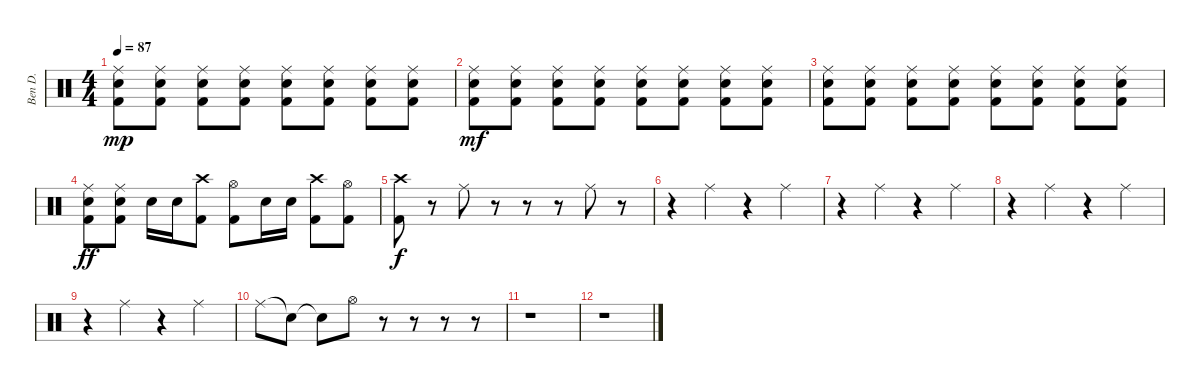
\track ("Ben D." "Ben D.") {instrument percussion}
\staff {score}
\articulation defaults
\ts (4 4)
\tempo 87
\clef neutral
\ks c
("Ride (middle)" "Electric Snare (hit)" "Kick (hit) 2").8{dy mp} ("Ride (middle)" "Electric Snare (hit)" "Kick (hit) 2").8 ("Ride (middle)" "Electric Snare (hit)" "Kick (hit) 2").8 ("Ride (middle)" "Electric Snare (hit)" "Kick (hit) 2").8 ("Ride (middle)" "Electric Snare (hit)" "Kick (hit) 2").8 ("Ride (middle)" "Electric Snare (hit)" "Kick (hit) 2").8 ("Ride (middle)" "Electric Snare (hit)" "Kick (hit) 2").8 ("Ride (middle)" "Electric Snare (hit)" "Kick (hit) 2").8 |
("Ride (middle)" "Electric Snare (hit)" "Kick (hit) 2").8{dy mf} ("Ride (middle)" "Electric Snare (hit)" "Kick (hit) 2").8 ("Ride (middle)" "Electric Snare (hit)" "Kick (hit) 2").8 ("Ride (middle)" "Electric Snare (hit)" "Kick (hit) 2").8 ("Ride (middle)" "Electric Snare (hit)" "Kick (hit) 2").8 ("Ride (middle)" "Electric Snare (hit)" "Kick (hit) 2").8 ("Ride (middle)" "Electric Snare (hit)" "Kick (hit) 2").8 ("Ride (middle)" "Electric Snare (hit)" "Kick (hit) 2").8 |
("Ride (middle)" "Electric Snare (hit)" "Kick (hit) 2").8 ("Ride (middle)" "Electric Snare (hit)" "Kick (hit) 2").8 ("Ride (middle)" "Electric Snare (hit)" "Kick (hit) 2").8 ("Ride (middle)" "Electric Snare (hit)" "Kick (hit) 2").8 ("Ride (middle)" "Electric Snare (hit)" "Kick (hit) 2").8 ("Ride (middle)" "Electric Snare (hit)" "Kick (hit) 2").8 ("Ride (middle)" "Electric Snare (hit)" "Kick (hit) 2").8 ("Ride (middle)" "Electric Snare (hit)" "Kick (hit) 2").8 |
("Kick (hit) 2" "Ride (middle)" "Electric Snare (hit)").8{dy ff} ("Kick (hit) 2" "Ride (middle)" "Electric Snare (hit)").8 "Electric Snare (hit)".16 "Electric Snare (hit)".16 ("Crash high (hit)" "Kick (hit) 2").8 ("Hi-Hat (open)" "Kick (hit) 2").8 "Electric Snare (hit)".16 "Electric Snare (hit)".16 ("Crash high (hit)" "Kick (hit) 2").8 ("Hi-Hat (open)" "Kick (hit) 2").8 |
("Crash high (hit)" "Kick (hit) 2").8{dy f} r.8 "Ride (middle)".8 r.8 r.8 r.8 "Ride (middle)".8 r.8 |
r.4 "Ride (middle)".4 r.4 "Ride (middle)".4 |
r.4 "Ride (middle)".4 r.4 "Ride (middle)".4 |
r.4 "Ride (middle)".4 r.4 "Ride (middle)".4 |
r.4 "Ride (middle)".4 r.4 "Ride (middle)".4 |
"Ride (middle)".8 "Snare (hit)"{t}.8 "Snare (hit)"{t}.8 "Hi-Hat (open)".8 r.8 r.8 r.8 r.8 |
r.1 |
r.1
